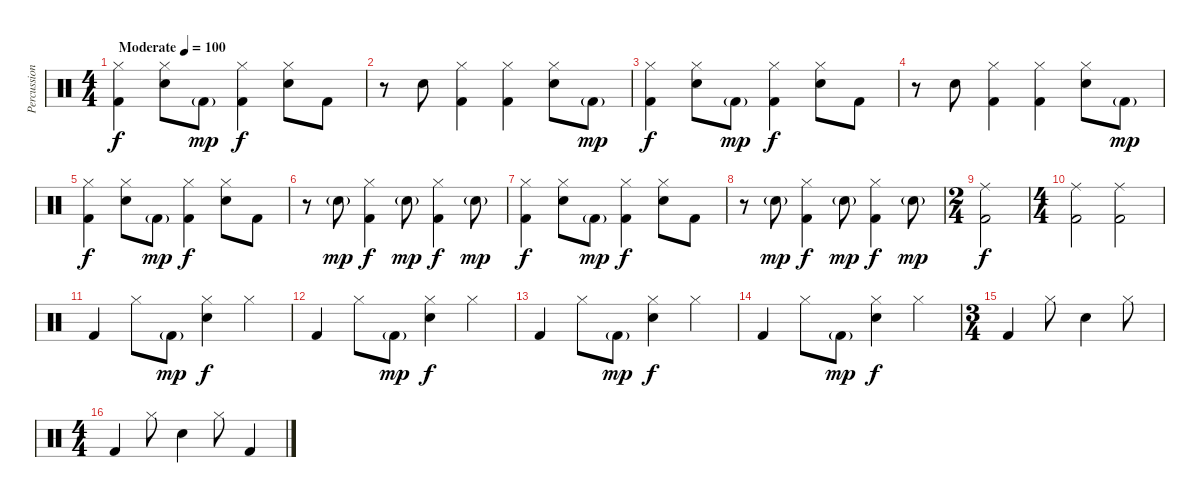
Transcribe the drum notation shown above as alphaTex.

\track ("Percussion" "Percussion") {instrument percussion}
\staff {score}
\articulation defaults
\ts (4 4)
\tempo (100 "Moderate")
\clef neutral
\ks c
("Hi-Hat (closed)" "Kick (hit) 2").4{dy f} ("Hi-Hat (closed)" "Snare (hit) 2").8 "Kick (hit) 2"{g}.8{dy mp} ("Hi-Hat (closed)" "Kick (hit) 2").4{dy f} ("Hi-Hat (closed)" "Snare (hit) 2").8 "Kick (hit) 2".8 |
r.8 "Snare (hit) 2".8 ("Hi-Hat (closed)" "Kick (hit) 2").4 ("Hi-Hat (closed)" "Kick (hit) 2").4 ("Hi-Hat (closed)" "Snare (hit) 2").8 "Kick (hit) 2"{g}.8{dy mp} |
("Hi-Hat (closed)" "Kick (hit) 2").4{dy f} ("Hi-Hat (closed)" "Snare (hit) 2").8 "Kick (hit) 2"{g}.8{dy mp} ("Hi-Hat (closed)" "Kick (hit) 2").4{dy f} ("Hi-Hat (closed)" "Snare (hit) 2").8 "Kick (hit) 2".8 |
r.8 "Snare (hit) 2".8 ("Hi-Hat (closed)" "Kick (hit) 2").4 ("Hi-Hat (closed)" "Kick (hit) 2").4 ("Hi-Hat (closed)" "Snare (hit) 2").8 "Kick (hit) 2"{g}.8{dy mp} |
("Hi-Hat (closed)" "Kick (hit) 2").4{dy f} ("Hi-Hat (closed)" "Snare (hit) 2").8 "Kick (hit) 2"{g}.8{dy mp} ("Hi-Hat (closed)" "Kick (hit) 2").4{dy f} ("Hi-Hat (closed)" "Snare (hit) 2").8 "Kick (hit) 2".8 |
r.8 "Snare (hit) 2"{g}.8{dy mp} ("Hi-Hat (closed)" "Kick (hit) 2").4{dy f} "Snare (hit) 2"{g}.8{dy mp} ("Hi-Hat (closed)" "Kick (hit) 2").4{dy f} "Snare (hit) 2"{g}.8{dy mp} |
("Hi-Hat (closed)" "Kick (hit) 2").4{dy f} ("Hi-Hat (closed)" "Snare (hit) 2").8 "Kick (hit) 2"{g}.8{dy mp} ("Hi-Hat (closed)" "Kick (hit) 2").4{dy f} ("Hi-Hat (closed)" "Snare (hit) 2").8 "Kick (hit) 2".8 |
r.8 "Snare (hit) 2"{g}.8{dy mp} ("Hi-Hat (closed)" "Kick (hit) 2").4{dy f} "Snare (hit) 2"{g}.8{dy mp} ("Hi-Hat (closed)" "Kick (hit) 2").4{dy f} "Snare (hit) 2"{g}.8{dy mp} |
\ts (2 4)
("Ride (middle)" "Kick (hit) 2").2{dy f} |
\ts (4 4)
("Ride (middle)" "Kick (hit) 2").2 ("Ride (middle)" "Kick (hit) 2").2 |
"Kick (hit) 2".4 "Hi-Hat (closed)".8 "Kick (hit) 2"{g}.8{dy mp} ("Hi-Hat (closed)" "Snare (hit) 2").4{dy f} "Hi-Hat (closed)".4 |
"Kick (hit) 2".4 "Hi-Hat (closed)".8 "Kick (hit) 2"{g}.8{dy mp} ("Hi-Hat (closed)" "Snare (hit) 2").4{dy f} "Hi-Hat (closed)".4 |
"Kick (hit) 2".4 "Hi-Hat (closed)".8 "Kick (hit) 2"{g}.8{dy mp} ("Hi-Hat (closed)" "Snare (hit) 2").4{dy f} "Hi-Hat (closed)".4 |
"Kick (hit) 2".4 "Hi-Hat (closed)".8 "Kick (hit) 2"{g}.8{dy mp} ("Hi-Hat (closed)" "Snare (hit) 2").4{dy f} "Hi-Hat (closed)".4 |
\ts (3 4)
"Kick (hit) 2".4 "Hi-Hat (closed)".8 "Snare (hit) 2".4 "Hi-Hat (closed)".8 |
\ts (4 4)
"Kick (hit) 2".4 "Hi-Hat (closed)".8 "Snare (hit) 2".4 "Hi-Hat (closed)".8 "Kick (hit) 2".4
